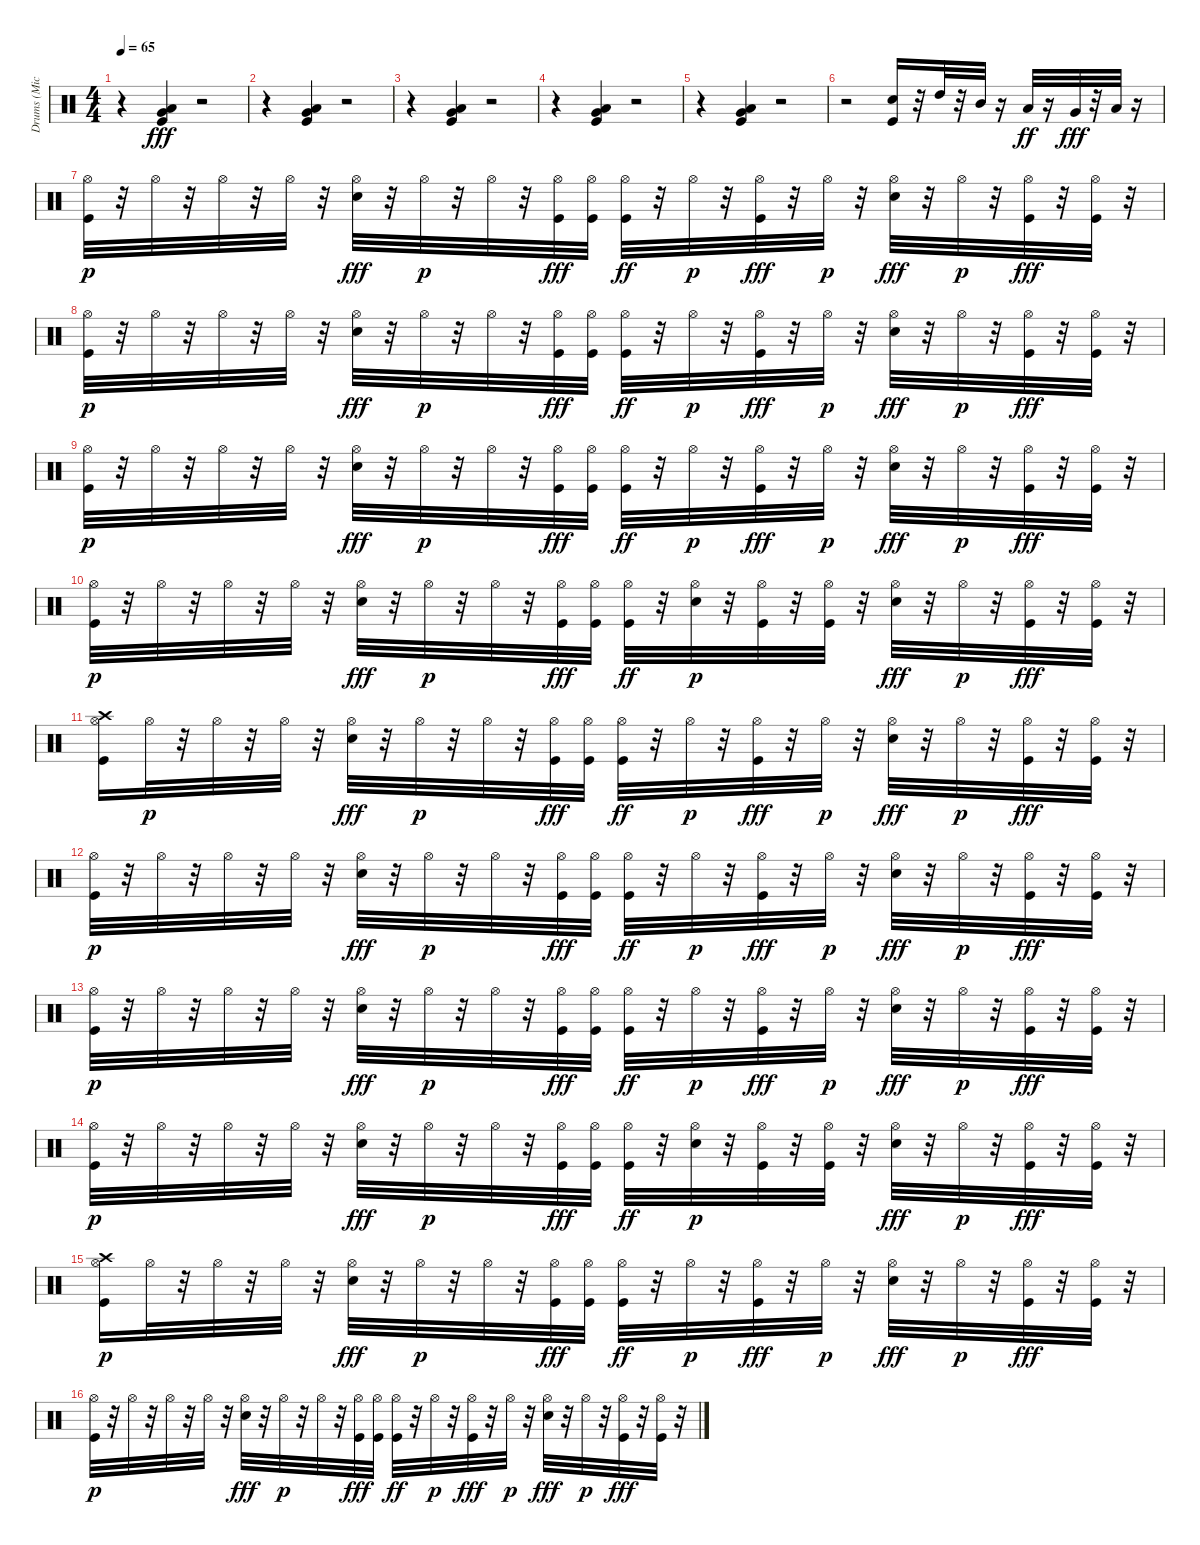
\track ("Drums (Michael Giles)" "Drums (Mic") {instrument percussion}
\staff {score}
\articulation defaults
\ts (4 4)
\tempo 65
\clef neutral
\ks c
r.4{dy fff} ("Kick (hit)" "Very Low Tom (hit)" "Low Tom (hit)").4 r.2 |
r.4 ("Kick (hit)" "Very Low Tom (hit)" "Low Tom (hit)").4 r.2 |
r.4 ("Kick (hit)" "Very Low Tom (hit)" "Low Tom (hit)").4 r.2 |
r.4 ("Kick (hit)" "Very Low Tom (hit)" "Low Tom (hit)").4 r.2 |
r.4 ("Kick (hit)" "Very Low Tom (hit)" "Low Tom (hit)").4 r.2 |
r.2 ("Kick (hit)" "Snare (hit) 2").16 r.32 "High Tom (hit)".32 r.32 "Mid Tom (hit)".32 r.16 "Low Tom (hit)".32{dy ff} r.16 "Very Low Tom (hit)".32{dy fff} r.32 "Low Floor Tom (hit)".32 r.16 |
("Kick (hit)" "Hi-Hat (open)").32{dy p} r.32 "Hi-Hat (open)".32 r.32 "Hi-Hat (open)".32 r.32 "Hi-Hat (open)".32 r.32 ("Hi-Hat (open)" "Snare (hit) 2").32{dy fff} r.32 "Hi-Hat (open)".32{dy p} r.32 "Hi-Hat (open)".32 r.32 ("Hi-Hat (open)" "Kick (hit)").32{dy fff} ("Hi-Hat (open)" "Kick (hit)").32 ("Hi-Hat (open)" "Kick (hit)").32{dy ff} r.32 "Hi-Hat (open)".32{dy p} r.32 ("Hi-Hat (open)" "Kick (hit)").32{dy fff} r.32 "Hi-Hat (open)".32{dy p} r.32 ("Hi-Hat (open)" "Snare (hit) 2").32{dy fff} r.32 "Hi-Hat (open)".32{dy p} r.32 ("Hi-Hat (open)" "Kick (hit)").32{dy fff} r.32 ("Hi-Hat (open)" "Kick (hit)").32 r.32 |
("Kick (hit)" "Hi-Hat (open)").32{dy p} r.32 "Hi-Hat (open)".32 r.32 "Hi-Hat (open)".32 r.32 "Hi-Hat (open)".32 r.32 ("Hi-Hat (open)" "Snare (hit) 2").32{dy fff} r.32 "Hi-Hat (open)".32{dy p} r.32 "Hi-Hat (open)".32 r.32 ("Hi-Hat (open)" "Kick (hit)").32{dy fff} ("Hi-Hat (open)" "Kick (hit)").32 ("Hi-Hat (open)" "Kick (hit)").32{dy ff} r.32 "Hi-Hat (open)".32{dy p} r.32 ("Hi-Hat (open)" "Kick (hit)").32{dy fff} r.32 "Hi-Hat (open)".32{dy p} r.32 ("Hi-Hat (open)" "Snare (hit) 2").32{dy fff} r.32 "Hi-Hat (open)".32{dy p} r.32 ("Hi-Hat (open)" "Kick (hit)").32{dy fff} r.32 ("Hi-Hat (open)" "Kick (hit)").32 r.32 |
("Kick (hit)" "Hi-Hat (open)").32{dy p} r.32 "Hi-Hat (open)".32 r.32 "Hi-Hat (open)".32 r.32 "Hi-Hat (open)".32 r.32 ("Hi-Hat (open)" "Snare (hit) 2").32{dy fff} r.32 "Hi-Hat (open)".32{dy p} r.32 "Hi-Hat (open)".32 r.32 ("Hi-Hat (open)" "Kick (hit)").32{dy fff} ("Hi-Hat (open)" "Kick (hit)").32 ("Hi-Hat (open)" "Kick (hit)").32{dy ff} r.32 "Hi-Hat (open)".32{dy p} r.32 ("Hi-Hat (open)" "Kick (hit)").32{dy fff} r.32 "Hi-Hat (open)".32{dy p} r.32 ("Hi-Hat (open)" "Snare (hit) 2").32{dy fff} r.32 "Hi-Hat (open)".32{dy p} r.32 ("Hi-Hat (open)" "Kick (hit)").32{dy fff} r.32 ("Hi-Hat (open)" "Kick (hit)").32 r.32 |
("Kick (hit)" "Hi-Hat (open)").32{dy p} r.32 "Hi-Hat (open)".32 r.32 "Hi-Hat (open)".32 r.32 "Hi-Hat (open)".32 r.32 ("Hi-Hat (open)" "Snare (hit) 2").32{dy fff} r.32 "Hi-Hat (open)".32{dy p} r.32 "Hi-Hat (open)".32 r.32 ("Hi-Hat (open)" "Kick (hit)").32{dy fff} ("Hi-Hat (open)" "Kick (hit)").32 ("Hi-Hat (open)" "Kick (hit)").32{dy ff} r.32 ("Snare (hit) 2" "Hi-Hat (open)").32{dy p} r.32 ("Kick (hit)" "Hi-Hat (open)").32 r.32 ("Kick (hit)" "Hi-Hat (open)").32 r.32 ("Hi-Hat (open)" "Snare (hit) 2").32{dy fff} r.32 "Hi-Hat (open)".32{dy p} r.32 ("Hi-Hat (open)" "Kick (hit)").32{dy fff} r.32 ("Hi-Hat (open)" "Kick (hit)").32 r.32 |
("Kick (hit)" "Hi-Hat (open)" "Crash high (hit)").16 "Hi-Hat (open)".32{dy p} r.32 "Hi-Hat (open)".32 r.32 "Hi-Hat (open)".32 r.32 ("Hi-Hat (open)" "Snare (hit) 2").32{dy fff} r.32 "Hi-Hat (open)".32{dy p} r.32 "Hi-Hat (open)".32 r.32 ("Hi-Hat (open)" "Kick (hit)").32{dy fff} ("Hi-Hat (open)" "Kick (hit)").32 ("Hi-Hat (open)" "Kick (hit)").32{dy ff} r.32 "Hi-Hat (open)".32{dy p} r.32 ("Hi-Hat (open)" "Kick (hit)").32{dy fff} r.32 "Hi-Hat (open)".32{dy p} r.32 ("Hi-Hat (open)" "Snare (hit) 2").32{dy fff} r.32 "Hi-Hat (open)".32{dy p} r.32 ("Hi-Hat (open)" "Kick (hit)").32{dy fff} r.32 ("Hi-Hat (open)" "Kick (hit)").32 r.32 |
("Kick (hit)" "Hi-Hat (open)").32{dy p} r.32 "Hi-Hat (open)".32 r.32 "Hi-Hat (open)".32 r.32 "Hi-Hat (open)".32 r.32 ("Hi-Hat (open)" "Snare (hit) 2").32{dy fff} r.32 "Hi-Hat (open)".32{dy p} r.32 "Hi-Hat (open)".32 r.32 ("Hi-Hat (open)" "Kick (hit)").32{dy fff} ("Hi-Hat (open)" "Kick (hit)").32 ("Hi-Hat (open)" "Kick (hit)").32{dy ff} r.32 "Hi-Hat (open)".32{dy p} r.32 ("Hi-Hat (open)" "Kick (hit)").32{dy fff} r.32 "Hi-Hat (open)".32{dy p} r.32 ("Hi-Hat (open)" "Snare (hit) 2").32{dy fff} r.32 "Hi-Hat (open)".32{dy p} r.32 ("Hi-Hat (open)" "Kick (hit)").32{dy fff} r.32 ("Hi-Hat (open)" "Kick (hit)").32 r.32 |
("Kick (hit)" "Hi-Hat (open)").32{dy p} r.32 "Hi-Hat (open)".32 r.32 "Hi-Hat (open)".32 r.32 "Hi-Hat (open)".32 r.32 ("Hi-Hat (open)" "Snare (hit) 2").32{dy fff} r.32 "Hi-Hat (open)".32{dy p} r.32 "Hi-Hat (open)".32 r.32 ("Hi-Hat (open)" "Kick (hit)").32{dy fff} ("Hi-Hat (open)" "Kick (hit)").32 ("Hi-Hat (open)" "Kick (hit)").32{dy ff} r.32 "Hi-Hat (open)".32{dy p} r.32 ("Hi-Hat (open)" "Kick (hit)").32{dy fff} r.32 "Hi-Hat (open)".32{dy p} r.32 ("Hi-Hat (open)" "Snare (hit) 2").32{dy fff} r.32 "Hi-Hat (open)".32{dy p} r.32 ("Hi-Hat (open)" "Kick (hit)").32{dy fff} r.32 ("Hi-Hat (open)" "Kick (hit)").32 r.32 |
("Kick (hit)" "Hi-Hat (open)").32{dy p} r.32 "Hi-Hat (open)".32 r.32 "Hi-Hat (open)".32 r.32 "Hi-Hat (open)".32 r.32 ("Hi-Hat (open)" "Snare (hit) 2").32{dy fff} r.32 "Hi-Hat (open)".32{dy p} r.32 "Hi-Hat (open)".32 r.32 ("Hi-Hat (open)" "Kick (hit)").32{dy fff} ("Hi-Hat (open)" "Kick (hit)").32 ("Hi-Hat (open)" "Kick (hit)").32{dy ff} r.32 ("Snare (hit) 2" "Hi-Hat (open)").32{dy p} r.32 ("Kick (hit)" "Hi-Hat (open)").32 r.32 ("Kick (hit)" "Hi-Hat (open)").32 r.32 ("Hi-Hat (open)" "Snare (hit) 2").32{dy fff} r.32 "Hi-Hat (open)".32{dy p} r.32 ("Hi-Hat (open)" "Kick (hit)").32{dy fff} r.32 ("Hi-Hat (open)" "Kick (hit)").32 r.32 |
("Crash high (hit)" "Kick (hit)" "Hi-Hat (open)").16{dy p} "Hi-Hat (open)".32 r.32 "Hi-Hat (open)".32 r.32 "Hi-Hat (open)".32 r.32 ("Hi-Hat (open)" "Snare (hit) 2").32{dy fff} r.32 "Hi-Hat (open)".32{dy p} r.32 "Hi-Hat (open)".32 r.32 ("Hi-Hat (open)" "Kick (hit)").32{dy fff} ("Hi-Hat (open)" "Kick (hit)").32 ("Hi-Hat (open)" "Kick (hit)").32{dy ff} r.32 "Hi-Hat (open)".32{dy p} r.32 ("Hi-Hat (open)" "Kick (hit)").32{dy fff} r.32 "Hi-Hat (open)".32{dy p} r.32 ("Hi-Hat (open)" "Snare (hit) 2").32{dy fff} r.32 "Hi-Hat (open)".32{dy p} r.32 ("Hi-Hat (open)" "Kick (hit)").32{dy fff} r.32 ("Hi-Hat (open)" "Kick (hit)").32 r.32 |
("Kick (hit)" "Hi-Hat (open)").32{dy p} r.32 "Hi-Hat (open)".32 r.32 "Hi-Hat (open)".32 r.32 "Hi-Hat (open)".32 r.32 ("Hi-Hat (open)" "Snare (hit) 2").32{dy fff} r.32 "Hi-Hat (open)".32{dy p} r.32 "Hi-Hat (open)".32 r.32 ("Hi-Hat (open)" "Kick (hit)").32{dy fff} ("Hi-Hat (open)" "Kick (hit)").32 ("Hi-Hat (open)" "Kick (hit)").32{dy ff} r.32 "Hi-Hat (open)".32{dy p} r.32 ("Hi-Hat (open)" "Kick (hit)").32{dy fff} r.32 "Hi-Hat (open)".32{dy p} r.32 ("Hi-Hat (open)" "Snare (hit) 2").32{dy fff} r.32 "Hi-Hat (open)".32{dy p} r.32 ("Hi-Hat (open)" "Kick (hit)").32{dy fff} r.32 ("Hi-Hat (open)" "Kick (hit)").32 r.32
